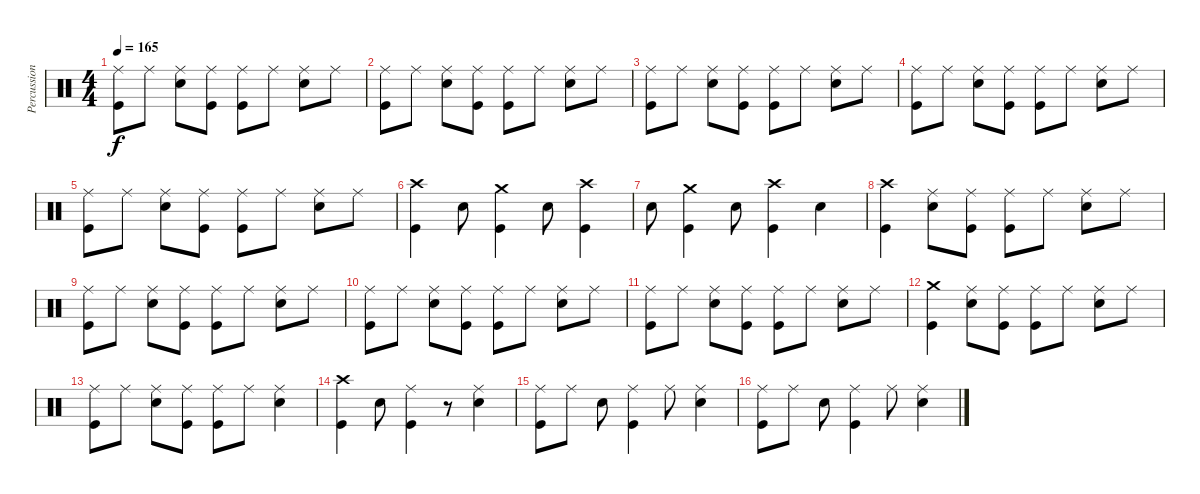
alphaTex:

\track ("Percussion" "Percussion") {instrument percussion}
\staff {score}
\articulation defaults
\ts (4 4)
\tempo 165
\clef neutral
\ks c
("Kick (hit)" "Ride (middle)").8{dy f} "Ride (middle)".8 ("Ride (middle)" "Snare (hit) 2").8 ("Kick (hit)" "Ride (middle)").8 ("Kick (hit)" "Ride (middle)").8 "Ride (middle)".8 ("Ride (middle)" "Snare (hit) 2").8 "Ride (middle)".8 |
("Kick (hit)" "Ride (middle)").8 "Ride (middle)".8 ("Ride (middle)" "Snare (hit) 2").8 ("Kick (hit)" "Ride (middle)").8 ("Kick (hit)" "Ride (middle)").8 "Ride (middle)".8 ("Ride (middle)" "Snare (hit) 2").8 "Ride (middle)".8 |
("Kick (hit)" "Ride (middle)").8 "Ride (middle)".8 ("Ride (middle)" "Snare (hit) 2").8 ("Kick (hit)" "Ride (middle)").8 ("Kick (hit)" "Ride (middle)").8 "Ride (middle)".8 ("Ride (middle)" "Snare (hit) 2").8 "Ride (middle)".8 |
("Kick (hit)" "Ride (middle)").8 "Ride (middle)".8 ("Ride (middle)" "Snare (hit) 2").8 ("Kick (hit)" "Ride (middle)").8 ("Kick (hit)" "Ride (middle)").8 "Ride (middle)".8 ("Ride (middle)" "Snare (hit) 2").8 "Ride (middle)".8 |
("Kick (hit)" "Ride (middle)").8 "Ride (middle)".8 ("Ride (middle)" "Snare (hit) 2").8 ("Kick (hit)" "Ride (middle)").8 ("Kick (hit)" "Ride (middle)").8 "Ride (middle)".8 ("Ride (middle)" "Snare (hit) 2").8 "Ride (middle)".8 |
("Kick (hit)" "Crash high (hit)").4 "Snare (hit) 2".8 ("Kick (hit)" "Crash medium (hit)").4 "Snare (hit) 2".8 ("Kick (hit)" "Crash high (hit)").4 |
"Snare (hit) 2".8 ("Kick (hit)" "Crash medium (hit)").4 "Snare (hit) 2".8 ("Kick (hit)" "Crash high (hit)").4 "Snare (hit) 2".4 |
("Kick (hit)" "Crash high (hit)").4 ("Ride (middle)" "Snare (hit) 2").8 ("Kick (hit)" "Ride (middle)").8 ("Kick (hit)" "Ride (middle)").8 "Ride (middle)".8 ("Ride (middle)" "Snare (hit) 2").8 "Ride (middle)".8 |
("Kick (hit)" "Ride (middle)").8 "Ride (middle)".8 ("Ride (middle)" "Snare (hit) 2").8 ("Kick (hit)" "Ride (middle)").8 ("Kick (hit)" "Ride (middle)").8 "Ride (middle)".8 ("Ride (middle)" "Snare (hit) 2").8 "Ride (middle)".8 |
("Kick (hit)" "Ride (middle)").8 "Ride (middle)".8 ("Ride (middle)" "Snare (hit) 2").8 ("Kick (hit)" "Ride (middle)").8 ("Kick (hit)" "Ride (middle)").8 "Ride (middle)".8 ("Ride (middle)" "Snare (hit) 2").8 "Ride (middle)".8 |
("Kick (hit)" "Ride (middle)").8 "Ride (middle)".8 ("Ride (middle)" "Snare (hit) 2").8 ("Kick (hit)" "Ride (middle)").8 ("Kick (hit)" "Ride (middle)").8 "Ride (middle)".8 ("Ride (middle)" "Snare (hit) 2").8 "Ride (middle)".8 |
("Kick (hit)" "Crash medium (hit)").4 ("Ride (middle)" "Snare (hit) 2").8 ("Kick (hit)" "Ride (middle)").8 ("Kick (hit)" "Ride (middle)").8 "Ride (middle)".8 ("Ride (middle)" "Snare (hit) 2").8 "Ride (middle)".8 |
("Kick (hit)" "Ride (middle)").8 "Ride (middle)".8 ("Ride (middle)" "Snare (hit) 2").8 ("Kick (hit)" "Ride (middle)").8 ("Kick (hit)" "Ride (middle)").8 "Ride (middle)".8 ("Ride (middle)" "Snare (hit) 2").4 |
("Kick (hit)" "Crash high (hit)").4 "Snare (hit) 2".8 ("Kick (hit)" "Ride (middle)").4 r.8 ("Ride (middle)" "Snare (hit) 2").4 |
("Kick (hit)" "Ride (middle)").8 "Ride (middle)".8 "Snare (hit) 2".8 ("Kick (hit)" "Ride (middle)").4 "Ride (middle)".8 ("Ride (middle)" "Snare (hit) 2").4 |
("Kick (hit)" "Ride (middle)").8 "Ride (middle)".8 "Snare (hit) 2".8 ("Kick (hit)" "Ride (middle)").4 "Ride (middle)".8 ("Ride (middle)" "Snare (hit) 2").4
